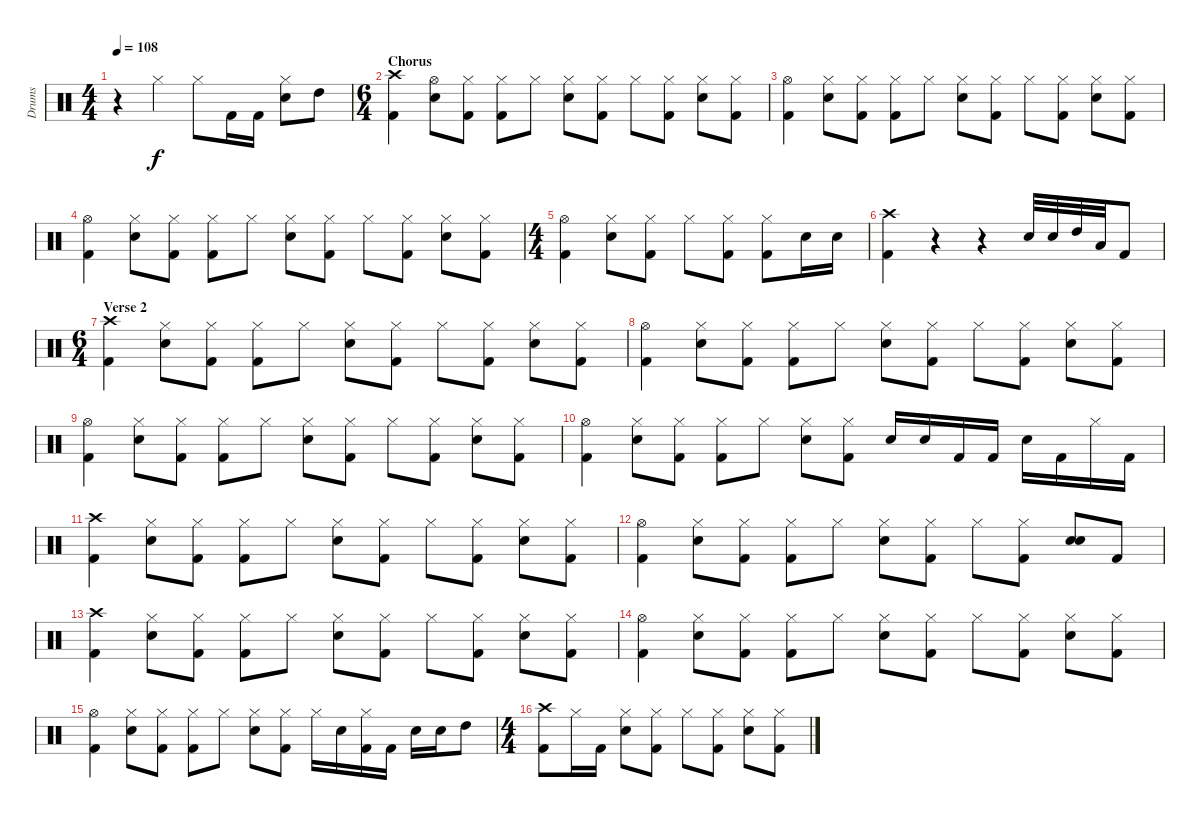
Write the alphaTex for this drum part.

\track ("Drums" "Drums") {instrument percussion}
\staff {score}
\articulation defaults
\ts (4 4)
\tempo 108
\clef neutral
\ks c
r.4{dy f} "Hi-Hat (closed)".4 "Hi-Hat (closed)".8 "Kick (hit) 2".16 "Kick (hit) 2".16 ("Hi-Hat (closed)" "Electric Snare (hit)").8 "High Tom (hit)".8 |
\ts (6 4)
\section ("" "Chorus")
("Crash high (hit)" "Kick (hit) 2").4 ("Hi-Hat (open)" "Electric Snare (hit)").8 ("Hi-Hat (closed)" "Kick (hit) 2").8 ("Hi-Hat (closed)" "Kick (hit) 2").8 "Hi-Hat (closed)".8 ("Hi-Hat (closed)" "Electric Snare (hit)").8 ("Hi-Hat (closed)" "Kick (hit) 2").8 "Hi-Hat (closed)".8 ("Hi-Hat (closed)" "Kick (hit) 2").8 ("Hi-Hat (closed)" "Electric Snare (hit)").8 ("Hi-Hat (closed)" "Kick (hit) 2").8 |
("Hi-Hat (open)" "Kick (hit) 2").4 ("Hi-Hat (closed)" "Electric Snare (hit)").8 ("Hi-Hat (closed)" "Kick (hit) 2").8 ("Hi-Hat (closed)" "Kick (hit) 2").8 "Hi-Hat (closed)".8 ("Hi-Hat (closed)" "Electric Snare (hit)").8 ("Hi-Hat (closed)" "Kick (hit) 2").8 "Hi-Hat (closed)".8 ("Hi-Hat (closed)" "Kick (hit) 2").8 ("Hi-Hat (closed)" "Electric Snare (hit)").8 ("Hi-Hat (closed)" "Kick (hit) 2").8 |
("Hi-Hat (open)" "Kick (hit) 2").4 ("Hi-Hat (closed)" "Electric Snare (hit)").8 ("Hi-Hat (closed)" "Kick (hit) 2").8 ("Hi-Hat (closed)" "Kick (hit) 2").8 "Hi-Hat (closed)".8 ("Hi-Hat (closed)" "Electric Snare (hit)").8 ("Hi-Hat (closed)" "Kick (hit) 2").8 "Hi-Hat (closed)".8 ("Hi-Hat (closed)" "Kick (hit) 2").8 ("Hi-Hat (closed)" "Electric Snare (hit)").8 ("Hi-Hat (closed)" "Kick (hit) 2").8 |
\ts (4 4)
("Hi-Hat (open)" "Kick (hit) 2").4 ("Hi-Hat (closed)" "Electric Snare (hit)").8 ("Hi-Hat (closed)" "Kick (hit) 2").8 "Hi-Hat (closed)".8 ("Hi-Hat (closed)" "Kick (hit) 2").8 ("Hi-Hat (closed)" "Kick (hit) 2").8 "Electric Snare (hit)".16 "Electric Snare (hit)".16 |
("Crash high (hit)" "Kick (hit) 2").4 r.4 r.4 "Electric Snare (hit)".32 "Electric Snare (hit)".32 "High Tom (hit)".32 "Low Tom (hit)".32 "Kick (hit) 2".8 |
\ts (6 4)
\section ("" "Verse 2")
("Crash high (hit)" "Kick (hit) 2").4 ("Hi-Hat (closed)" "Electric Snare (hit)").8 ("Hi-Hat (closed)" "Kick (hit) 2").8 ("Hi-Hat (closed)" "Kick (hit) 2").8 "Hi-Hat (closed)".8 ("Hi-Hat (closed)" "Electric Snare (hit)").8 ("Hi-Hat (closed)" "Kick (hit) 2").8 "Hi-Hat (closed)".8 ("Hi-Hat (closed)" "Kick (hit) 2").8 ("Hi-Hat (closed)" "Electric Snare (hit)").8 ("Hi-Hat (closed)" "Kick (hit) 2").8 |
("Hi-Hat (open)" "Kick (hit) 2").4 ("Hi-Hat (closed)" "Electric Snare (hit)").8 ("Hi-Hat (closed)" "Kick (hit) 2").8 ("Hi-Hat (closed)" "Kick (hit) 2").8 "Hi-Hat (closed)".8 ("Hi-Hat (closed)" "Electric Snare (hit)").8 ("Hi-Hat (closed)" "Kick (hit) 2").8 "Hi-Hat (closed)".8 ("Hi-Hat (closed)" "Kick (hit) 2").8 ("Hi-Hat (closed)" "Electric Snare (hit)").8 ("Hi-Hat (closed)" "Kick (hit) 2").8 |
("Hi-Hat (open)" "Kick (hit) 2").4 ("Hi-Hat (closed)" "Electric Snare (hit)").8 ("Hi-Hat (closed)" "Kick (hit) 2").8 ("Hi-Hat (closed)" "Kick (hit) 2").8 "Hi-Hat (closed)".8 ("Hi-Hat (closed)" "Electric Snare (hit)").8 ("Hi-Hat (closed)" "Kick (hit) 2").8 "Hi-Hat (closed)".8 ("Hi-Hat (closed)" "Kick (hit) 2").8 ("Hi-Hat (closed)" "Electric Snare (hit)").8 ("Hi-Hat (closed)" "Kick (hit) 2").8 |
("Hi-Hat (open)" "Kick (hit) 2").4 ("Hi-Hat (closed)" "Electric Snare (hit)").8 ("Hi-Hat (closed)" "Kick (hit) 2").8 ("Hi-Hat (closed)" "Kick (hit) 2").8 "Hi-Hat (closed)".8 ("Hi-Hat (closed)" "Electric Snare (hit)").8 ("Hi-Hat (closed)" "Kick (hit) 2").8 "Electric Snare (hit)".16 "Electric Snare (hit)".16 "Kick (hit) 2".16 "Kick (hit) 2".16 "Electric Snare (hit)".16 "Kick (hit) 2".16 "Hi-Hat (closed)".16 "Kick (hit) 2".16 |
("Crash high (hit)" "Kick (hit) 2").4 ("Hi-Hat (closed)" "Electric Snare (hit)").8 ("Hi-Hat (closed)" "Kick (hit) 2").8 ("Hi-Hat (closed)" "Kick (hit) 2").8 "Hi-Hat (closed)".8 ("Hi-Hat (closed)" "Electric Snare (hit)").8 ("Hi-Hat (closed)" "Kick (hit) 2").8 "Hi-Hat (closed)".8 ("Hi-Hat (closed)" "Kick (hit) 2").8 ("Hi-Hat (closed)" "Electric Snare (hit)").8 ("Hi-Hat (closed)" "Kick (hit) 2").8 |
("Hi-Hat (open)" "Kick (hit) 2").4 ("Hi-Hat (closed)" "Electric Snare (hit)").8 ("Hi-Hat (closed)" "Kick (hit) 2").8 ("Hi-Hat (closed)" "Kick (hit) 2").8 "Hi-Hat (closed)".8 ("Hi-Hat (closed)" "Electric Snare (hit)").8 ("Hi-Hat (closed)" "Kick (hit) 2").8 "Hi-Hat (closed)".8 ("Hi-Hat (closed)" "Kick (hit) 2").8 ("Electric Snare (hit)" "Electric Snare (hit)").8 "Kick (hit) 2".8 |
("Crash high (hit)" "Kick (hit) 2").4 ("Hi-Hat (closed)" "Electric Snare (hit)").8 ("Hi-Hat (closed)" "Kick (hit) 2").8 ("Hi-Hat (closed)" "Kick (hit) 2").8 "Hi-Hat (closed)".8 ("Hi-Hat (closed)" "Electric Snare (hit)").8 ("Hi-Hat (closed)" "Kick (hit) 2").8 "Hi-Hat (closed)".8 ("Hi-Hat (closed)" "Kick (hit) 2").8 ("Hi-Hat (closed)" "Electric Snare (hit)").8 ("Hi-Hat (closed)" "Kick (hit) 2").8 |
("Hi-Hat (open)" "Kick (hit) 2").4 ("Hi-Hat (closed)" "Electric Snare (hit)").8 ("Hi-Hat (closed)" "Kick (hit) 2").8 ("Hi-Hat (closed)" "Kick (hit) 2").8 "Hi-Hat (closed)".8 ("Hi-Hat (closed)" "Electric Snare (hit)").8 ("Hi-Hat (closed)" "Kick (hit) 2").8 "Hi-Hat (closed)".8 ("Hi-Hat (closed)" "Kick (hit) 2").8 ("Hi-Hat (closed)" "Electric Snare (hit)").8 ("Hi-Hat (closed)" "Kick (hit) 2").8 |
("Hi-Hat (open)" "Kick (hit) 2").4 ("Hi-Hat (closed)" "Electric Snare (hit)").8 ("Hi-Hat (closed)" "Kick (hit) 2").8 ("Hi-Hat (closed)" "Kick (hit) 2").8 "Hi-Hat (closed)".8 ("Hi-Hat (closed)" "Electric Snare (hit)").8 ("Hi-Hat (closed)" "Kick (hit) 2").8 "Hi-Hat (closed)".16 "Electric Snare (hit)".16 ("Hi-Hat (closed)" "Kick (hit) 2").16 "Kick (hit) 2".16 "Electric Snare (hit)".16 "Electric Snare (hit)".16 "High Tom (hit)".8 |
\ts (4 4)
("Crash high (hit)" "Kick (hit) 2").8 "Hi-Hat (closed)".16 "Kick (hit) 2".16 ("Hi-Hat (closed)" "Electric Snare (hit)").8 ("Hi-Hat (closed)" "Kick (hit) 2").8 "Hi-Hat (closed)".8 ("Hi-Hat (closed)" "Kick (hit) 2").8 ("Hi-Hat (closed)" "Electric Snare (hit)").8 ("Hi-Hat (closed)" "Kick (hit) 2").8
